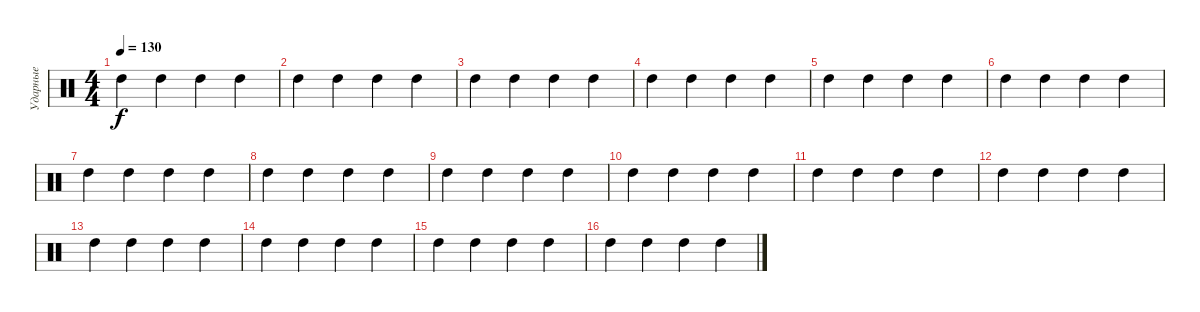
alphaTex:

\track ("Ударные" "Ударные") {instrument percussion}
\staff {score}
\articulation defaults
\ts (4 4)
\tempo 130
\clef neutral
\ks c "High Tom (hit)".4{dy f} "High Tom (hit)".4 "High Tom (hit)".4 "High Tom (hit)".4
|
"High Tom (hit)".4 "High Tom (hit)".4 "High Tom (hit)".4 "High Tom (hit)".4 |
"High Tom (hit)".4 "High Tom (hit)".4 "High Tom (hit)".4 "High Tom (hit)".4 |
"High Tom (hit)".4 "High Tom (hit)".4 "High Tom (hit)".4 "High Tom (hit)".4 |
"High Tom (hit)".4 "High Tom (hit)".4 "High Tom (hit)".4 "High Tom (hit)".4 |
"High Tom (hit)".4 "High Tom (hit)".4 "High Tom (hit)".4 "High Tom (hit)".4 |
"High Tom (hit)".4 "High Tom (hit)".4 "High Tom (hit)".4 "High Tom (hit)".4 |
"High Tom (hit)".4 "High Tom (hit)".4 "High Tom (hit)".4 "High Tom (hit)".4 |
"High Tom (hit)".4 "High Tom (hit)".4 "High Tom (hit)".4 "High Tom (hit)".4 |
"High Tom (hit)".4 "High Tom (hit)".4 "High Tom (hit)".4 "High Tom (hit)".4 |
"High Tom (hit)".4 "High Tom (hit)".4 "High Tom (hit)".4 "High Tom (hit)".4 |
"High Tom (hit)".4 "High Tom (hit)".4 "High Tom (hit)".4 "High Tom (hit)".4 |
"High Tom (hit)".4 "High Tom (hit)".4 "High Tom (hit)".4 "High Tom (hit)".4 |
"High Tom (hit)".4 "High Tom (hit)".4 "High Tom (hit)".4 "High Tom (hit)".4 |
"High Tom (hit)".4 "High Tom (hit)".4 "High Tom (hit)".4 "High Tom (hit)".4 |
"High Tom (hit)".4 "High Tom (hit)".4 "High Tom (hit)".4 "High Tom (hit)".4
